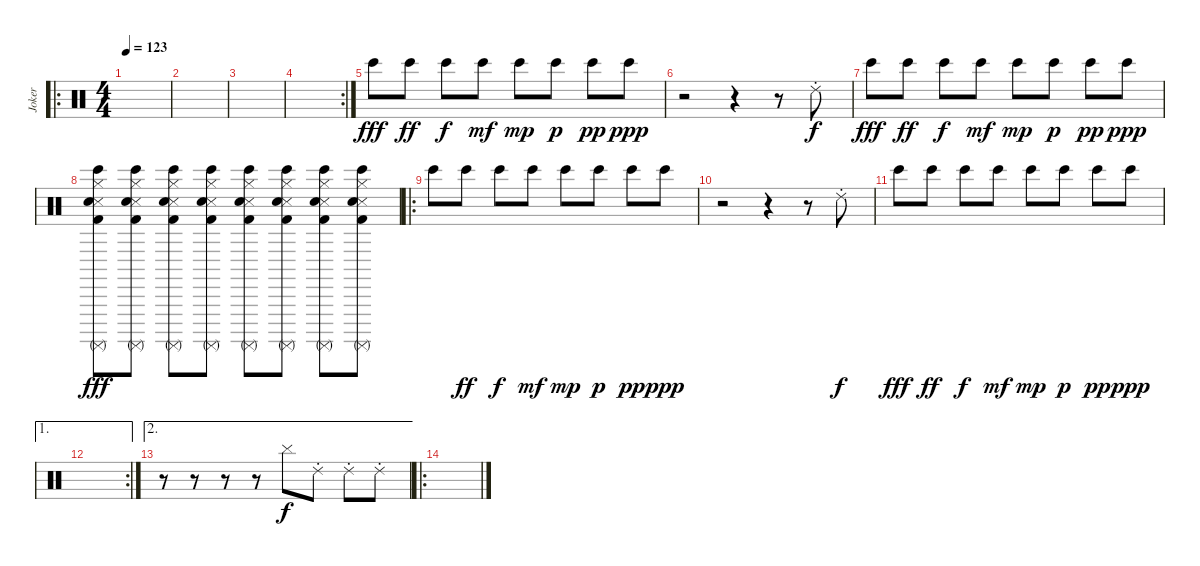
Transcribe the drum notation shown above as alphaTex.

\track ("Joker" "Joker") {instrument percussion}
\staff {score}
\articulation defaults
\ro
\ts (4 4)
\tempo 123
\clef neutral
\ks c
|
|
|
\rc 2
|
"Bongo High (hit)".8{dy fff} "Bongo High (hit)".8{dy ff} "Bongo High (hit)".8{dy f} "Bongo High (hit)".8{dy mf} "Bongo High (hit)".8{dy mp} "Bongo High (hit)".8{dy p} "Bongo High (hit)".8{dy pp} "Bongo High (hit)".8{dy ppp} |
r.2 r.4 r.8 "Ride (choke) 2".8{dy f} |
"Bongo High (hit)".8{dy fff} "Bongo High (hit)".8{dy ff} "Bongo High (hit)".8{dy f} "Bongo High (hit)".8{dy mf} "Bongo High (hit)".8{dy mp} "Bongo High (hit)".8{dy p} "Bongo High (hit)".8{dy pp} "Bongo High (hit)".8{dy ppp} |
("Hi-Hat (closed)" "Bongo High (hit)" "Kick (hit) 2" "Surdo (mute)" "Snare (side stick) 3" "Electric Snare (hit)").8{dy fff} ("Hi-Hat (closed)" "Bongo High (hit)" "Kick (hit) 2" "Surdo (mute)" "Snare (side stick) 3" "Electric Snare (hit)").8 ("Hi-Hat (closed)" "Bongo High (hit)" "Kick (hit) 2" "Surdo (mute)" "Snare (side stick) 3" "Electric Snare (hit)").8 ("Hi-Hat (closed)" "Bongo High (hit)" "Kick (hit) 2" "Surdo (mute)" "Snare (side stick) 3" "Electric Snare (hit)").8 ("Hi-Hat (closed)" "Bongo High (hit)" "Kick (hit) 2" "Surdo (mute)" "Snare (side stick) 3" "Electric Snare (hit)").8 ("Hi-Hat (closed)" "Bongo High (hit)" "Kick (hit) 2" "Surdo (mute)" "Snare (side stick) 3" "Electric Snare (hit)").8 ("Hi-Hat (closed)" "Bongo High (hit)" "Kick (hit) 2" "Surdo (mute)" "Snare (side stick) 3" "Electric Snare (hit)").8 ("Hi-Hat (closed)" "Bongo High (hit)" "Kick (hit) 2" "Surdo (mute)" "Snare (side stick) 3" "Electric Snare (hit)").8 |
\ro "Bongo High (hit)".8 "Bongo High (hit)".8{dy ff} "Bongo High (hit)".8{dy f} "Bongo High (hit)".8{dy mf} "Bongo High (hit)".8{dy mp} "Bongo High (hit)".8{dy p} "Bongo High (hit)".8{dy pp} "Bongo High (hit)".8{dy ppp}
|
r.2 r.4 r.8 "Ride (choke) 2".8{dy f} |
"Bongo High (hit)".8{dy fff} "Bongo High (hit)".8{dy ff} "Bongo High (hit)".8{dy f} "Bongo High (hit)".8{dy mf} "Bongo High (hit)".8{dy mp} "Bongo High (hit)".8{dy p} "Bongo High (hit)".8{dy pp} "Bongo High (hit)".8{dy ppp} |
\ae 1
\rc 2
|
\ae 2
r.8 r.8 r.8 r.8 "Cymbal (hit)".8{dy f} "Ride (choke) 2".8 "Ride (choke) 2".8 "Ride (choke) 2".8 |
\ro
